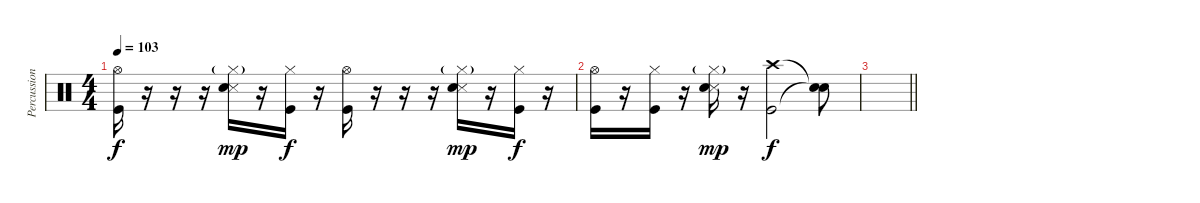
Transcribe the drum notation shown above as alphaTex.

\track ("Percussion" "Percussion") {instrument percussion}
\staff {score}
\articulation defaults
\ts (4 4)
\tempo 103
\clef neutral
\ks c
("Hi-Hat (open)" "Kick (hit)").16{dy f} r.16 r.16 r.16 ("Hi-Hat (closed)"{g} "Snare (side stick) 3" "Snare (hit) 2").16{dy mp} r.16 ("Hi-Hat (closed)" "Kick (hit)").16{dy f} r.16 ("Hi-Hat (open)" "Kick (hit)").16 r.16 r.16 r.16 ("Hi-Hat (closed)"{g} "Snare (side stick) 3" "Snare (hit) 2").16{dy mp} r.16 ("Hi-Hat (closed)" "Kick (hit)").16{dy f} r.16 |
("Hi-Hat (open)" "Kick (hit)").16 r.16 ("Hi-Hat (closed)" "Kick (hit)").16 r.16 ("Hi-Hat (closed)"{g} "Snare (side stick) 3" "Snare (hit) 2").16{dy mp} r.16 ("Crash high (hit)" "Kick (hit)").2{dy f} ("Snare (hit)"{t} "Snare (hit)"{t}).8 |
\barLineRight lightlight
